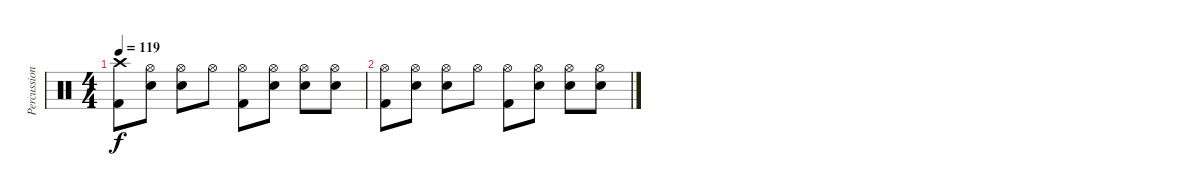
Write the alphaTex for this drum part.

\track ("Percussion" "Percussion") {instrument percussion}
\staff {score}
\articulation defaults
\ts (4 4)
\tempo 119
\clef neutral
\ks c
("Crash high (hit)" "Kick (hit) 2").8{dy f} ("Hi-Hat (open)" "Snare (hit)").8 ("Hi-Hat (open)" "Snare (hit) 2").8 "Hi-Hat (open)".8 ("Hi-Hat (open)" "Kick (hit) 2").8 ("Hi-Hat (open)" "Snare (hit)").8 ("Hi-Hat (open)" "Snare (hit) 2").8 ("Hi-Hat (open)" "Snare (hit)").8 |
("Hi-Hat (open)" "Kick (hit) 2").8 ("Hi-Hat (open)" "Snare (hit)").8 ("Hi-Hat (open)" "Snare (hit) 2").8 "Hi-Hat (open)".8 ("Hi-Hat (open)" "Kick (hit) 2").8 ("Hi-Hat (open)" "Snare (hit)").8 ("Hi-Hat (open)" "Snare (hit) 2").8 ("Hi-Hat (open)" "Snare (hit)").8
